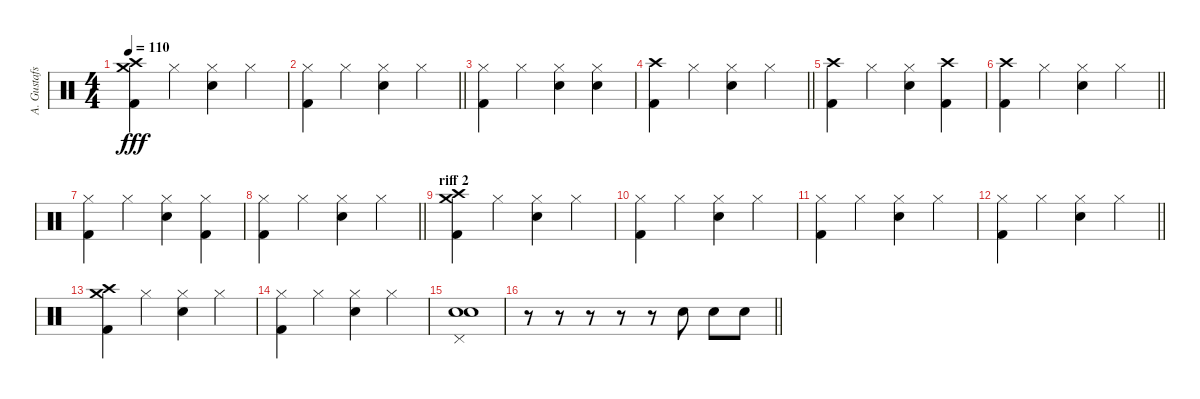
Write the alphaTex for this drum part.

\track ("A. Gustafsson" "A. Gustafs") {instrument percussion}
\staff {score}
\articulation defaults
\ts (4 4)
\tempo 110
\clef neutral
\ks c
("Crash high (hit)" "Crash medium (hit)" "Kick (hit) 2").4{dy fff} "Hi-Hat (closed)".4 ("Hi-Hat (closed)" "Snare (hit) 2").4 "Hi-Hat (closed)".4 |
\barLineRight lightlight
("Hi-Hat (closed)" "Kick (hit) 2").4 "Hi-Hat (closed)".4 ("Hi-Hat (closed)" "Snare (hit) 2").4 "Hi-Hat (closed)".4 |
("Hi-Hat (closed)" "Kick (hit) 2").4 "Hi-Hat (closed)".4 ("Hi-Hat (closed)" "Snare (hit) 2").4 ("Hi-Hat (closed)" "Snare (hit) 2").4 |
\barLineRight lightlight
("Crash high (hit)" "Kick (hit) 2").4 "Hi-Hat (closed)".4 ("Hi-Hat (closed)" "Snare (hit) 2").4 "Hi-Hat (closed)".4 |
("Crash high (hit)" "Kick (hit) 2").4 "Hi-Hat (closed)".4 ("Hi-Hat (closed)" "Snare (hit) 2").4 ("Crash high (hit)" "Kick (hit) 2").4 |
\barLineRight lightlight
("Crash high (hit)" "Kick (hit) 2").4 "Hi-Hat (closed)".4 ("Hi-Hat (closed)" "Snare (hit) 2").4 "Hi-Hat (closed)".4 |
("Hi-Hat (closed)" "Kick (hit) 2").4 "Hi-Hat (closed)".4 ("Hi-Hat (closed)" "Snare (hit) 2").4 ("Hi-Hat (closed)" "Kick (hit) 2").4 |
\barLineRight lightlight
("Hi-Hat (closed)" "Kick (hit) 2").4 "Hi-Hat (closed)".4 ("Hi-Hat (closed)" "Snare (hit) 2").4 "Hi-Hat (closed)".4 |
\section ("" "riff 2")
("Crash high (hit)" "Crash medium (hit)" "Kick (hit) 2").4 "Hi-Hat (closed)".4 ("Hi-Hat (closed)" "Snare (hit) 2").4 "Hi-Hat (closed)".4 |
("Hi-Hat (closed)" "Kick (hit) 2").4 "Hi-Hat (closed)".4 ("Hi-Hat (closed)" "Snare (hit) 2").4 "Hi-Hat (closed)".4 |
("Hi-Hat (closed)" "Kick (hit) 2").4 "Hi-Hat (closed)".4 ("Hi-Hat (closed)" "Snare (hit) 2").4 "Hi-Hat (closed)".4 |
\barLineRight lightlight
("Hi-Hat (closed)" "Kick (hit) 2").4 "Hi-Hat (closed)".4 ("Hi-Hat (closed)" "Snare (hit) 2").4 "Hi-Hat (closed)".4 |
("Crash high (hit)" "Crash medium (hit)" "Kick (hit) 2").4 "Hi-Hat (closed)".4 ("Hi-Hat (closed)" "Snare (hit) 2").4 "Hi-Hat (closed)".4 |
("Hi-Hat (closed)" "Kick (hit) 2").4 "Hi-Hat (closed)".4 ("Hi-Hat (closed)" "Snare (hit) 2").4 "Hi-Hat (closed)".4 |
("Snare (hit) 2" "Snare (hit) 2" "Pedal Hi-Hat (hit)").1 |
\barLineRight lightlight
r.8 r.8 r.8 r.8 r.8 "Snare (hit) 2".8 "Snare (hit) 2".8 "Snare (hit) 2".8
